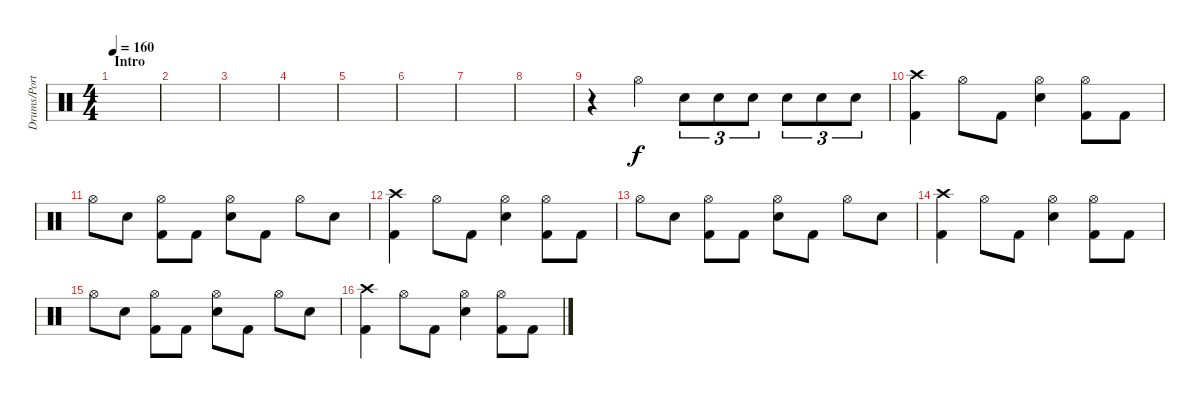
\track ("Drums/Portnoy" "Drums/Port") {instrument percussion}
\staff {score}
\articulation defaults
\ts (4 4)
\section ("" "Intro")
\tempo 160
\clef neutral
\ks c
|
|
|
|
|
|
|
|
r.4 "Hi-Hat (open)".4 "Electric Snare (hit)".8{tu (3 2)} "Electric Snare (hit)".8{tu (3 2)} "Electric Snare (hit)".8{tu (3 2)} "Electric Snare (hit)".8{tu (3 2)} "Electric Snare (hit)".8{tu (3 2)} "Electric Snare (hit)".8{tu (3 2)} |
("Crash high (hit)" "Kick (hit) 2").4 "Hi-Hat (open)".8 "Kick (hit) 2".8 ("Hi-Hat (open)" "Electric Snare (hit)").4 ("Hi-Hat (open)" "Kick (hit) 2").8 "Kick (hit) 2".8 |
"Hi-Hat (open)".8 "Electric Snare (hit)".8 ("Hi-Hat (open)" "Kick (hit) 2").8 "Kick (hit) 2".8 ("Hi-Hat (open)" "Electric Snare (hit)").8 "Kick (hit) 2".8 "Hi-Hat (open)".8 "Electric Snare (hit)".8 |
("Crash high (hit)" "Kick (hit) 2").4 "Hi-Hat (open)".8 "Kick (hit) 2".8 ("Hi-Hat (open)" "Electric Snare (hit)").4 ("Hi-Hat (open)" "Kick (hit) 2").8 "Kick (hit) 2".8 |
"Hi-Hat (open)".8 "Electric Snare (hit)".8 ("Hi-Hat (open)" "Kick (hit) 2").8 "Kick (hit) 2".8 ("Hi-Hat (open)" "Electric Snare (hit)").8 "Kick (hit) 2".8 "Hi-Hat (open)".8 "Electric Snare (hit)".8 |
("Crash high (hit)" "Kick (hit) 2").4 "Hi-Hat (open)".8 "Kick (hit) 2".8 ("Hi-Hat (open)" "Electric Snare (hit)").4 ("Hi-Hat (open)" "Kick (hit) 2").8 "Kick (hit) 2".8 |
"Hi-Hat (open)".8 "Electric Snare (hit)".8 ("Hi-Hat (open)" "Kick (hit) 2").8 "Kick (hit) 2".8 ("Hi-Hat (open)" "Electric Snare (hit)").8 "Kick (hit) 2".8 "Hi-Hat (open)".8 "Electric Snare (hit)".8 |
("Crash high (hit)" "Kick (hit) 2").4 "Hi-Hat (open)".8 "Kick (hit) 2".8 ("Hi-Hat (open)" "Electric Snare (hit)").4 ("Hi-Hat (open)" "Kick (hit) 2").8 "Kick (hit) 2".8
